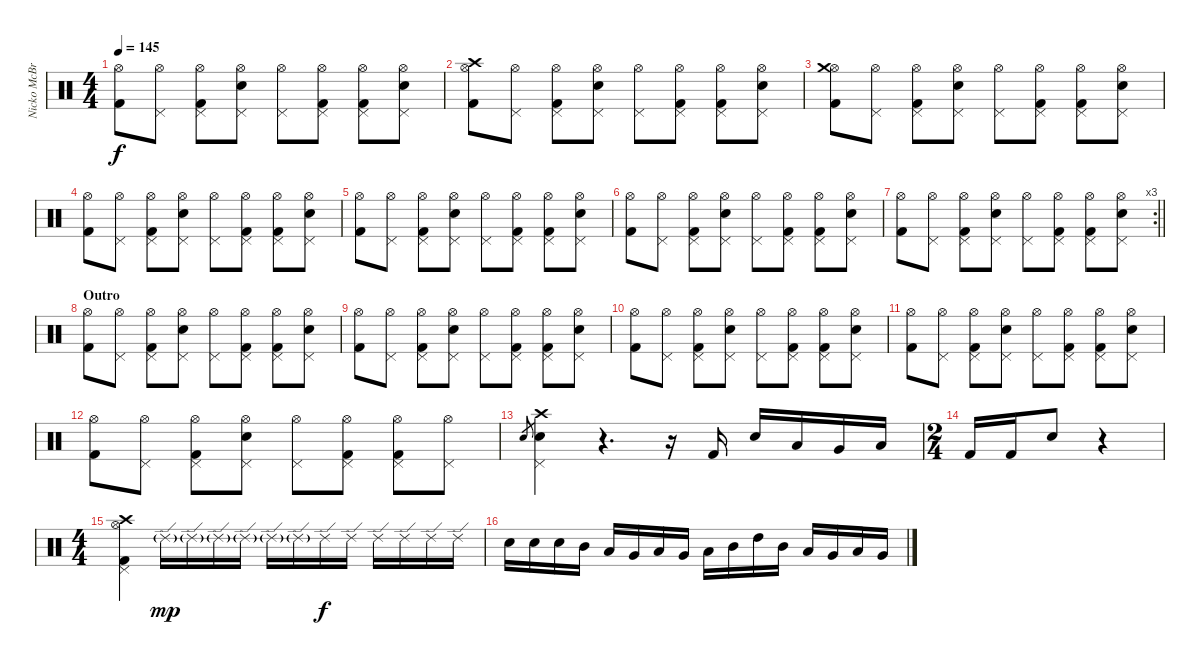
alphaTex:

\track ("Nicko McBrain" "Nicko McBr") {instrument percussion}
\staff {score}
\articulation defaults
\ts (4 4)
\tempo 145
\clef neutral
\ks c
("Kick (hit) 2" "Hi-Hat (open)").8{dy f} ("Pedal Hi-Hat (hit)" "Hi-Hat (open)").8 ("Kick (hit) 2" "Pedal Hi-Hat (hit)" "Hi-Hat (open)").8 ("Snare (hit) 2" "Pedal Hi-Hat (hit)" "Hi-Hat (open)").8 ("Pedal Hi-Hat (hit)" "Hi-Hat (open)").8 ("Kick (hit) 2" "Pedal Hi-Hat (hit)" "Hi-Hat (open)").8 ("Kick (hit) 2" "Pedal Hi-Hat (hit)" "Hi-Hat (open)").8 ("Snare (hit) 2" "Pedal Hi-Hat (hit)" "Hi-Hat (open)").8 |
("Kick (hit) 2" "Hi-Hat (open)" "Crash high (hit)").8 ("Pedal Hi-Hat (hit)" "Hi-Hat (open)").8 ("Kick (hit) 2" "Pedal Hi-Hat (hit)" "Hi-Hat (open)").8 ("Snare (hit) 2" "Pedal Hi-Hat (hit)" "Hi-Hat (open)").8 ("Pedal Hi-Hat (hit)" "Hi-Hat (open)").8 ("Kick (hit) 2" "Pedal Hi-Hat (hit)" "Hi-Hat (open)").8 ("Kick (hit) 2" "Pedal Hi-Hat (hit)" "Hi-Hat (open)").8 ("Snare (hit) 2" "Pedal Hi-Hat (hit)" "Hi-Hat (open)").8 |
("Kick (hit) 2" "Hi-Hat (open)" "Crash medium (hit)").8 ("Pedal Hi-Hat (hit)" "Hi-Hat (open)").8 ("Kick (hit) 2" "Pedal Hi-Hat (hit)" "Hi-Hat (open)").8 ("Snare (hit) 2" "Pedal Hi-Hat (hit)" "Hi-Hat (open)").8 ("Pedal Hi-Hat (hit)" "Hi-Hat (open)").8 ("Kick (hit) 2" "Pedal Hi-Hat (hit)" "Hi-Hat (open)").8 ("Kick (hit) 2" "Pedal Hi-Hat (hit)" "Hi-Hat (open)").8 ("Snare (hit) 2" "Pedal Hi-Hat (hit)" "Hi-Hat (open)").8 |
("Kick (hit) 2" "Hi-Hat (open)").8 ("Pedal Hi-Hat (hit)" "Hi-Hat (open)").8 ("Kick (hit) 2" "Pedal Hi-Hat (hit)" "Hi-Hat (open)").8 ("Snare (hit) 2" "Pedal Hi-Hat (hit)" "Hi-Hat (open)").8 ("Pedal Hi-Hat (hit)" "Hi-Hat (open)").8 ("Kick (hit) 2" "Pedal Hi-Hat (hit)" "Hi-Hat (open)").8 ("Kick (hit) 2" "Pedal Hi-Hat (hit)" "Hi-Hat (open)").8 ("Snare (hit) 2" "Pedal Hi-Hat (hit)" "Hi-Hat (open)").8 |
("Kick (hit) 2" "Hi-Hat (open)").8 ("Pedal Hi-Hat (hit)" "Hi-Hat (open)").8 ("Kick (hit) 2" "Pedal Hi-Hat (hit)" "Hi-Hat (open)").8 ("Snare (hit) 2" "Pedal Hi-Hat (hit)" "Hi-Hat (open)").8 ("Pedal Hi-Hat (hit)" "Hi-Hat (open)").8 ("Kick (hit) 2" "Pedal Hi-Hat (hit)" "Hi-Hat (open)").8 ("Kick (hit) 2" "Pedal Hi-Hat (hit)" "Hi-Hat (open)").8 ("Snare (hit) 2" "Pedal Hi-Hat (hit)" "Hi-Hat (open)").8 |
("Kick (hit) 2" "Hi-Hat (open)").8 ("Pedal Hi-Hat (hit)" "Hi-Hat (open)").8 ("Kick (hit) 2" "Pedal Hi-Hat (hit)" "Hi-Hat (open)").8 ("Snare (hit) 2" "Pedal Hi-Hat (hit)" "Hi-Hat (open)").8 ("Pedal Hi-Hat (hit)" "Hi-Hat (open)").8 ("Kick (hit) 2" "Pedal Hi-Hat (hit)" "Hi-Hat (open)").8 ("Kick (hit) 2" "Pedal Hi-Hat (hit)" "Hi-Hat (open)").8 ("Snare (hit) 2" "Pedal Hi-Hat (hit)" "Hi-Hat (open)").8 |
\rc 3
\barLineRight lightlight
("Kick (hit) 2" "Hi-Hat (open)").8 ("Pedal Hi-Hat (hit)" "Hi-Hat (open)").8 ("Kick (hit) 2" "Pedal Hi-Hat (hit)" "Hi-Hat (open)").8 ("Snare (hit) 2" "Pedal Hi-Hat (hit)" "Hi-Hat (open)").8 ("Pedal Hi-Hat (hit)" "Hi-Hat (open)").8 ("Kick (hit) 2" "Pedal Hi-Hat (hit)" "Hi-Hat (open)").8 ("Kick (hit) 2" "Pedal Hi-Hat (hit)" "Hi-Hat (open)").8 ("Snare (hit) 2" "Pedal Hi-Hat (hit)" "Hi-Hat (open)").8 |
\section ("" "Outro")
("Kick (hit) 2" "Hi-Hat (open)").8 ("Pedal Hi-Hat (hit)" "Hi-Hat (open)").8 ("Kick (hit) 2" "Pedal Hi-Hat (hit)" "Hi-Hat (open)").8 ("Snare (hit) 2" "Pedal Hi-Hat (hit)" "Hi-Hat (open)").8 ("Pedal Hi-Hat (hit)" "Hi-Hat (open)").8 ("Kick (hit) 2" "Pedal Hi-Hat (hit)" "Hi-Hat (open)").8 ("Kick (hit) 2" "Pedal Hi-Hat (hit)" "Hi-Hat (open)").8 ("Snare (hit) 2" "Pedal Hi-Hat (hit)" "Hi-Hat (open)").8 |
("Kick (hit) 2" "Hi-Hat (open)").8 ("Pedal Hi-Hat (hit)" "Hi-Hat (open)").8 ("Kick (hit) 2" "Pedal Hi-Hat (hit)" "Hi-Hat (open)").8 ("Snare (hit) 2" "Pedal Hi-Hat (hit)" "Hi-Hat (open)").8 ("Pedal Hi-Hat (hit)" "Hi-Hat (open)").8 ("Kick (hit) 2" "Pedal Hi-Hat (hit)" "Hi-Hat (open)").8 ("Kick (hit) 2" "Pedal Hi-Hat (hit)" "Hi-Hat (open)").8 ("Snare (hit) 2" "Pedal Hi-Hat (hit)" "Hi-Hat (open)").8 |
("Kick (hit) 2" "Hi-Hat (open)").8 ("Pedal Hi-Hat (hit)" "Hi-Hat (open)").8 ("Kick (hit) 2" "Pedal Hi-Hat (hit)" "Hi-Hat (open)").8 ("Snare (hit) 2" "Pedal Hi-Hat (hit)" "Hi-Hat (open)").8 ("Pedal Hi-Hat (hit)" "Hi-Hat (open)").8 ("Kick (hit) 2" "Pedal Hi-Hat (hit)" "Hi-Hat (open)").8 ("Kick (hit) 2" "Pedal Hi-Hat (hit)" "Hi-Hat (open)").8 ("Snare (hit) 2" "Pedal Hi-Hat (hit)" "Hi-Hat (open)").8 |
("Kick (hit) 2" "Hi-Hat (open)").8 ("Pedal Hi-Hat (hit)" "Hi-Hat (open)").8 ("Kick (hit) 2" "Pedal Hi-Hat (hit)" "Hi-Hat (open)").8 ("Snare (hit) 2" "Pedal Hi-Hat (hit)" "Hi-Hat (open)").8 ("Pedal Hi-Hat (hit)" "Hi-Hat (open)").8 ("Kick (hit) 2" "Pedal Hi-Hat (hit)" "Hi-Hat (open)").8 ("Kick (hit) 2" "Pedal Hi-Hat (hit)" "Hi-Hat (open)").8 ("Snare (hit) 2" "Pedal Hi-Hat (hit)" "Hi-Hat (open)").8 |
("Kick (hit) 2" "Hi-Hat (open)").8 ("Pedal Hi-Hat (hit)" "Hi-Hat (open)").8 ("Kick (hit) 2" "Pedal Hi-Hat (hit)" "Hi-Hat (open)").8 ("Snare (hit) 2" "Pedal Hi-Hat (hit)" "Hi-Hat (open)").8 ("Pedal Hi-Hat (hit)" "Hi-Hat (open)").8 ("Kick (hit) 2" "Pedal Hi-Hat (hit)" "Hi-Hat (open)").8 ("Kick (hit) 2" "Pedal Hi-Hat (hit)" "Hi-Hat (open)").8 ("Pedal Hi-Hat (hit)" "Hi-Hat (open)").8 |
"Snare (hit) 2".8{gr} ("Snare (hit) 2" "Pedal Hi-Hat (hit)" "Crash high (hit)").4 r.4{d} r.16 "Kick (hit) 2".16 "Snare (hit) 2".16 "Low Tom (hit)".16 "Very Low Tom (hit)".16 "Low Floor Tom (hit)".16 |
\ts (2 4)
"Kick (hit) 2".16 "Kick (hit) 2".16 "Snare (hit) 2".8 r.4 |
\ts (4 4)
("Kick (hit) 2" "Pedal Hi-Hat (hit)" "Hi-Hat (open)" "Crash high (hit)").4 "Ride (edge) 2"{g}.16{dy mp} "Ride (edge) 2"{g}.16 "Ride (edge) 2"{g}.16 "Ride (edge) 2"{g}.16 "Ride (edge) 2"{g}.16 "Ride (edge) 2"{g}.16 "Ride (edge) 2".16{dy f} "Ride (edge) 2".16 "Ride (edge) 2".16 "Ride (edge) 2".16 "Ride (edge) 2".16 "Ride (edge) 2".16 |
"Snare (hit) 2".16 "Snare (hit) 2".16 "Snare (hit) 2".16 "Mid Tom (hit)".16 "Low Tom (hit)".16 "Very Low Tom (hit)".16 "Low Floor Tom (hit)".16 "Very Low Tom (hit)".16 "Low Tom (hit)".16 "Mid Tom (hit)".16 "High Tom (hit)".16 "Mid Tom (hit)".16 "Low Tom (hit)".16 "Very Low Tom (hit)".16 "Low Tom (hit)".16 "Very Low Tom (hit)".16
